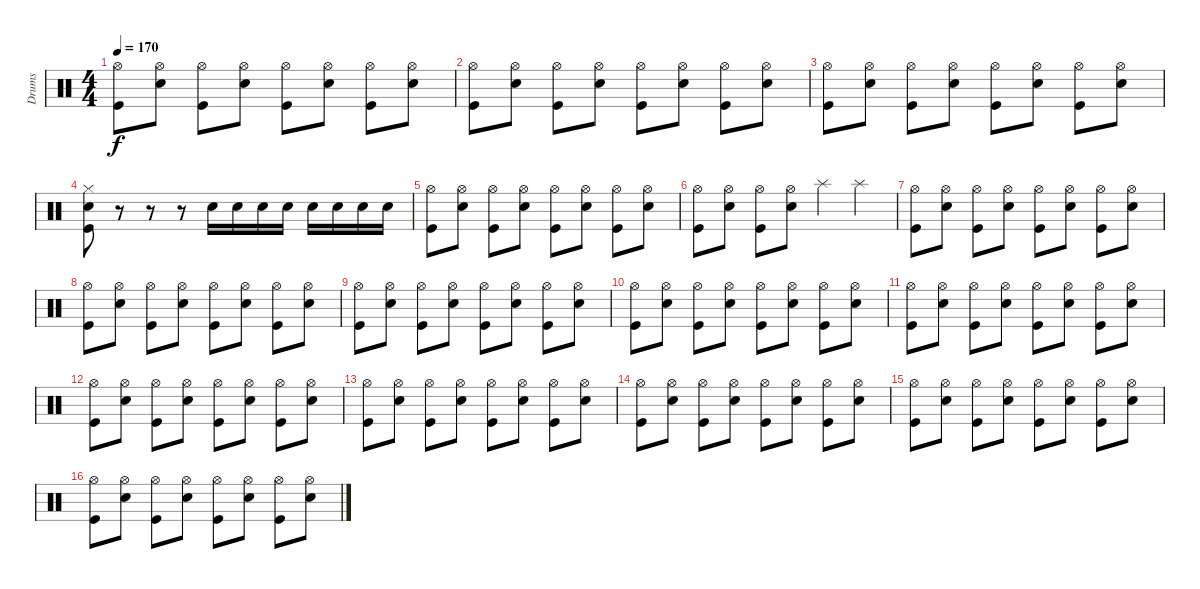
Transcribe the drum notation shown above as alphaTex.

\track ("Drums" "Drums") {instrument percussion}
\staff {score}
\articulation defaults
\ts (4 4)
\tempo 170
\clef neutral
\ks c
("Hi-Hat (open)" "Kick (hit)").8{dy f} ("Hi-Hat (open)" "Snare (hit) 2").8 ("Hi-Hat (open)" "Kick (hit)").8 ("Hi-Hat (open)" "Snare (hit) 2").8 ("Hi-Hat (open)" "Kick (hit)").8 ("Hi-Hat (open)" "Snare (hit) 2").8 ("Hi-Hat (open)" "Kick (hit)").8 ("Hi-Hat (open)" "Snare (hit) 2").8 |
("Hi-Hat (open)" "Kick (hit)").8 ("Hi-Hat (open)" "Snare (hit) 2").8 ("Hi-Hat (open)" "Kick (hit)").8 ("Hi-Hat (open)" "Snare (hit) 2").8 ("Hi-Hat (open)" "Kick (hit)").8 ("Hi-Hat (open)" "Snare (hit) 2").8 ("Hi-Hat (open)" "Kick (hit)").8 ("Hi-Hat (open)" "Snare (hit) 2").8 |
("Hi-Hat (open)" "Kick (hit)").8 ("Hi-Hat (open)" "Snare (hit) 2").8 ("Hi-Hat (open)" "Kick (hit)").8 ("Hi-Hat (open)" "Snare (hit) 2").8 ("Hi-Hat (open)" "Kick (hit)").8 ("Hi-Hat (open)" "Snare (hit) 2").8 ("Hi-Hat (open)" "Kick (hit)").8 ("Hi-Hat (open)" "Snare (hit) 2").8 |
("Hi-Hat (closed)" "Snare (hit) 2" "Kick (hit)").8 r.8 r.8 r.8 "Snare (hit) 2".16 "Snare (hit) 2".16 "Snare (hit) 2".16 "Snare (hit) 2".16 "Snare (hit) 2".16 "Snare (hit) 2".16 "Snare (hit) 2".16 "Snare (hit) 2".16 |
("Hi-Hat (open)" "Kick (hit)").8 ("Hi-Hat (open)" "Snare (hit) 2").8 ("Hi-Hat (open)" "Kick (hit)").8 ("Hi-Hat (open)" "Snare (hit) 2").8 ("Hi-Hat (open)" "Kick (hit)").8 ("Hi-Hat (open)" "Snare (hit) 2").8 ("Hi-Hat (open)" "Kick (hit)").8 ("Hi-Hat (open)" "Snare (hit) 2").8 |
("Hi-Hat (open)" "Kick (hit)").8 ("Hi-Hat (open)" "Snare (hit) 2").8 ("Hi-Hat (open)" "Kick (hit)").8 ("Hi-Hat (open)" "Snare (hit) 2").8 "Splash (hit)".4 "Splash (hit)".4 |
("Hi-Hat (open)" "Kick (hit)").8 ("Hi-Hat (open)" "Snare (hit) 2").8 ("Hi-Hat (open)" "Kick (hit)").8 ("Hi-Hat (open)" "Snare (hit) 2").8 ("Hi-Hat (open)" "Kick (hit)").8 ("Hi-Hat (open)" "Snare (hit) 2").8 ("Hi-Hat (open)" "Kick (hit)").8 ("Hi-Hat (open)" "Snare (hit) 2").8 |
("Hi-Hat (open)" "Kick (hit)").8 ("Hi-Hat (open)" "Snare (hit) 2").8 ("Hi-Hat (open)" "Kick (hit)").8 ("Hi-Hat (open)" "Snare (hit) 2").8 ("Hi-Hat (open)" "Kick (hit)").8 ("Hi-Hat (open)" "Snare (hit) 2").8 ("Hi-Hat (open)" "Kick (hit)").8 ("Hi-Hat (open)" "Snare (hit) 2").8 |
("Hi-Hat (open)" "Kick (hit)").8 ("Hi-Hat (open)" "Snare (hit) 2").8 ("Hi-Hat (open)" "Kick (hit)").8 ("Hi-Hat (open)" "Snare (hit) 2").8 ("Hi-Hat (open)" "Kick (hit)").8 ("Hi-Hat (open)" "Snare (hit) 2").8 ("Hi-Hat (open)" "Kick (hit)").8 ("Hi-Hat (open)" "Snare (hit) 2").8 |
("Hi-Hat (open)" "Kick (hit)").8 ("Hi-Hat (open)" "Snare (hit) 2").8 ("Hi-Hat (open)" "Kick (hit)").8 ("Hi-Hat (open)" "Snare (hit) 2").8 ("Hi-Hat (open)" "Kick (hit)").8 ("Hi-Hat (open)" "Snare (hit) 2").8 ("Hi-Hat (open)" "Kick (hit)").8 ("Hi-Hat (open)" "Snare (hit) 2").8 |
("Hi-Hat (open)" "Kick (hit)").8 ("Hi-Hat (open)" "Snare (hit) 2").8 ("Hi-Hat (open)" "Kick (hit)").8 ("Hi-Hat (open)" "Snare (hit) 2").8 ("Hi-Hat (open)" "Kick (hit)").8 ("Hi-Hat (open)" "Snare (hit) 2").8 ("Hi-Hat (open)" "Kick (hit)").8 ("Hi-Hat (open)" "Snare (hit) 2").8 |
("Hi-Hat (open)" "Kick (hit)").8 ("Hi-Hat (open)" "Snare (hit) 2").8 ("Hi-Hat (open)" "Kick (hit)").8 ("Hi-Hat (open)" "Snare (hit) 2").8 ("Hi-Hat (open)" "Kick (hit)").8 ("Hi-Hat (open)" "Snare (hit) 2").8 ("Hi-Hat (open)" "Kick (hit)").8 ("Hi-Hat (open)" "Snare (hit) 2").8 |
("Hi-Hat (open)" "Kick (hit)").8 ("Hi-Hat (open)" "Snare (hit) 2").8 ("Hi-Hat (open)" "Kick (hit)").8 ("Hi-Hat (open)" "Snare (hit) 2").8 ("Hi-Hat (open)" "Kick (hit)").8 ("Hi-Hat (open)" "Snare (hit) 2").8 ("Hi-Hat (open)" "Kick (hit)").8 ("Hi-Hat (open)" "Snare (hit) 2").8 |
("Hi-Hat (open)" "Kick (hit)").8 ("Hi-Hat (open)" "Snare (hit) 2").8 ("Hi-Hat (open)" "Kick (hit)").8 ("Hi-Hat (open)" "Snare (hit) 2").8 ("Hi-Hat (open)" "Kick (hit)").8 ("Hi-Hat (open)" "Snare (hit) 2").8 ("Hi-Hat (open)" "Kick (hit)").8 ("Hi-Hat (open)" "Snare (hit) 2").8 |
("Hi-Hat (open)" "Kick (hit)").8 ("Hi-Hat (open)" "Snare (hit) 2").8 ("Hi-Hat (open)" "Kick (hit)").8 ("Hi-Hat (open)" "Snare (hit) 2").8 ("Hi-Hat (open)" "Kick (hit)").8 ("Hi-Hat (open)" "Snare (hit) 2").8 ("Hi-Hat (open)" "Kick (hit)").8 ("Hi-Hat (open)" "Snare (hit) 2").8 |
("Hi-Hat (open)" "Kick (hit)").8 ("Hi-Hat (open)" "Snare (hit) 2").8 ("Hi-Hat (open)" "Kick (hit)").8 ("Hi-Hat (open)" "Snare (hit) 2").8 ("Hi-Hat (open)" "Kick (hit)").8 ("Hi-Hat (open)" "Snare (hit) 2").8 ("Hi-Hat (open)" "Kick (hit)").8 ("Hi-Hat (open)" "Snare (hit) 2").8
